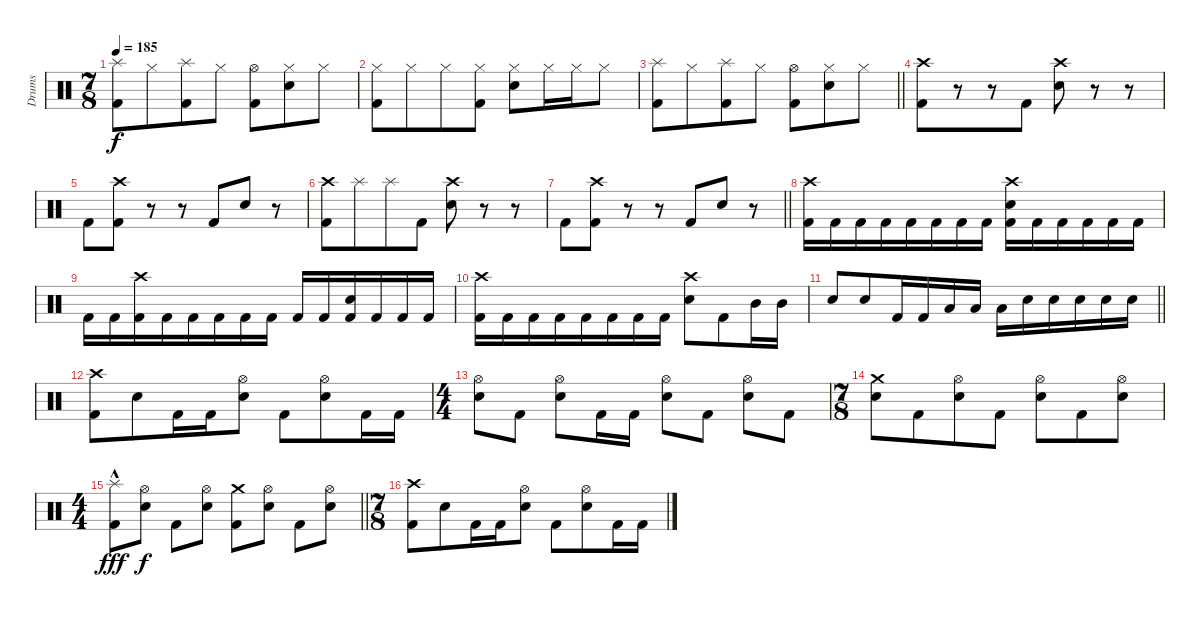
\track ("Drums" "Drums") {instrument percussion}
\staff {score}
\articulation defaults
\ts (7 8)
\tempo 185
\clef neutral
\ks c
("Splash (hit)" "Kick (hit) 2").8{dy f} "Hi-Hat (closed)".8 ("Splash (hit)" "Kick (hit) 2").8 "Hi-Hat (closed)".8 ("Hi-Hat (open)" "Kick (hit) 2").8 ("Hi-Hat (closed)" "Electric Snare (hit)").8 "Hi-Hat (closed)".8 |
("Hi-Hat (closed)" "Kick (hit) 2").8 "Hi-Hat (closed)".8 "Hi-Hat (closed)".8 ("Hi-Hat (closed)" "Kick (hit) 2").8 ("Hi-Hat (closed)" "Electric Snare (hit)").8 "Hi-Hat (closed)".16 "Hi-Hat (closed)".16 "Hi-Hat (closed)".8 |
\barLineRight lightlight
("Splash (hit)" "Kick (hit) 2").8 "Hi-Hat (closed)".8 ("Splash (hit)" "Kick (hit) 2").8 "Hi-Hat (closed)".8 ("Hi-Hat (open)" "Kick (hit) 2").8 ("Hi-Hat (closed)" "Electric Snare (hit)").8 "Hi-Hat (closed)".8 |
("Crash high (hit)" "Kick (hit) 2").8 r.8 r.8 "Kick (hit) 2".8 ("Crash high (hit)" "Electric Snare (hit)").8 r.8 r.8 |
"Kick (hit) 2".8 ("Crash high (hit)" "Kick (hit) 2").8 r.8 r.8 "Kick (hit) 2".8 "Electric Snare (hit)".8 r.8 |
("Crash high (hit)" "Kick (hit) 2").8 "Splash (hit)".8 "Splash (hit)".8 "Kick (hit) 2".8 ("Crash high (hit)" "Electric Snare (hit)").8 r.8 r.8 |
\barLineRight lightlight "Kick (hit) 2".8
("Crash high (hit)" "Kick (hit) 2").8 r.8 r.8 "Kick (hit) 2".8 "Electric Snare (hit)".8 r.8 |
("Crash high (hit)" "Kick (hit) 2").16 "Kick (hit) 2".16 "Kick (hit) 2".16 "Kick (hit) 2".16 "Kick (hit) 2".16 "Kick (hit) 2".16 "Kick (hit) 2".16 "Kick (hit) 2".16 ("Crash high (hit)" "Electric Snare (hit)" "Kick (hit) 2").16 "Kick (hit) 2".16 "Kick (hit) 2".16 "Kick (hit) 2".16 "Kick (hit) 2".16 "Kick (hit) 2".16 |
"Kick (hit) 2".16 "Kick (hit) 2".16 ("Crash high (hit)" "Kick (hit) 2").16 "Kick (hit) 2".16 "Kick (hit) 2".16 "Kick (hit) 2".16 "Kick (hit) 2".16 "Kick (hit) 2".16 "Kick (hit) 2".16 "Kick (hit) 2".16 ("Electric Snare (hit)" "Kick (hit) 2").16 "Kick (hit) 2".16 "Kick (hit) 2".16 "Kick (hit) 2".16 |
("Crash high (hit)" "Kick (hit) 2").16 "Kick (hit) 2".16 "Kick (hit) 2".16 "Kick (hit) 2".16 "Kick (hit) 2".16 "Kick (hit) 2".16 "Kick (hit) 2".16 "Kick (hit) 2".16 ("Crash high (hit)" "Electric Snare (hit)").8 "Kick (hit) 2".8 "Mid Tom (hit)".16 "Mid Tom (hit)".16 |
\barLineRight lightlight "Electric Snare (hit)".8 "Electric Snare (hit)".8 "Kick (hit) 2".16 "Kick (hit) 2".16 "Low Tom (hit)".16 "Low Tom (hit)".16 "Low Tom (hit)".16 "Electric Snare (hit)".16 "Electric Snare (hit)".16 "Electric Snare (hit)".16 "Electric Snare (hit)".16 "Electric Snare (hit)".16
|
("Crash high (hit)" "Kick (hit) 2").8 "Electric Snare (hit)".8 "Kick (hit) 2".16 "Kick (hit) 2".16 ("Hi-Hat (open)" "Electric Snare (hit)").8 "Kick (hit) 2".8 ("Hi-Hat (open)" "Electric Snare (hit)").8 "Kick (hit) 2".16 "Kick (hit) 2".16 |
\ts (4 4)
("Hi-Hat (open)" "Electric Snare (hit)").8 "Kick (hit) 2".8 ("Hi-Hat (open)" "Electric Snare (hit)").8 "Kick (hit) 2".16 "Kick (hit) 2".16 ("Hi-Hat (open)" "Electric Snare (hit)").8 "Kick (hit) 2".8 ("Hi-Hat (open)" "Electric Snare (hit)").8 "Kick (hit) 2".8 |
\ts (7 8)
("Crash medium (hit)" "Electric Snare (hit)").8 "Kick (hit) 2".8 ("Hi-Hat (open)" "Electric Snare (hit)").8 "Kick (hit) 2".8 ("Hi-Hat (open)" "Electric Snare (hit)").8 "Kick (hit) 2".8 ("Hi-Hat (open)" "Electric Snare (hit)").8 |
\ts (4 4)
\barLineRight lightlight
("Splash (hit)"{hac} "Kick (hit) 2").8{dy fff} ("Hi-Hat (open)" "Electric Snare (hit)").8{dy f} "Kick (hit) 2".8 ("Hi-Hat (open)" "Electric Snare (hit)").8 ("Crash medium (hit)" "Kick (hit) 2").8 ("Hi-Hat (open)" "Electric Snare (hit)").8 "Kick (hit) 2".8 ("Hi-Hat (open)" "Electric Snare (hit)").8 |
\ts (7 8)
("Crash high (hit)" "Kick (hit) 2").8 "Electric Snare (hit)".8 "Kick (hit) 2".16 "Kick (hit) 2".16 ("Hi-Hat (open)" "Electric Snare (hit)").8 "Kick (hit) 2".8 ("Hi-Hat (open)" "Electric Snare (hit)").8 "Kick (hit) 2".16 "Kick (hit) 2".16
